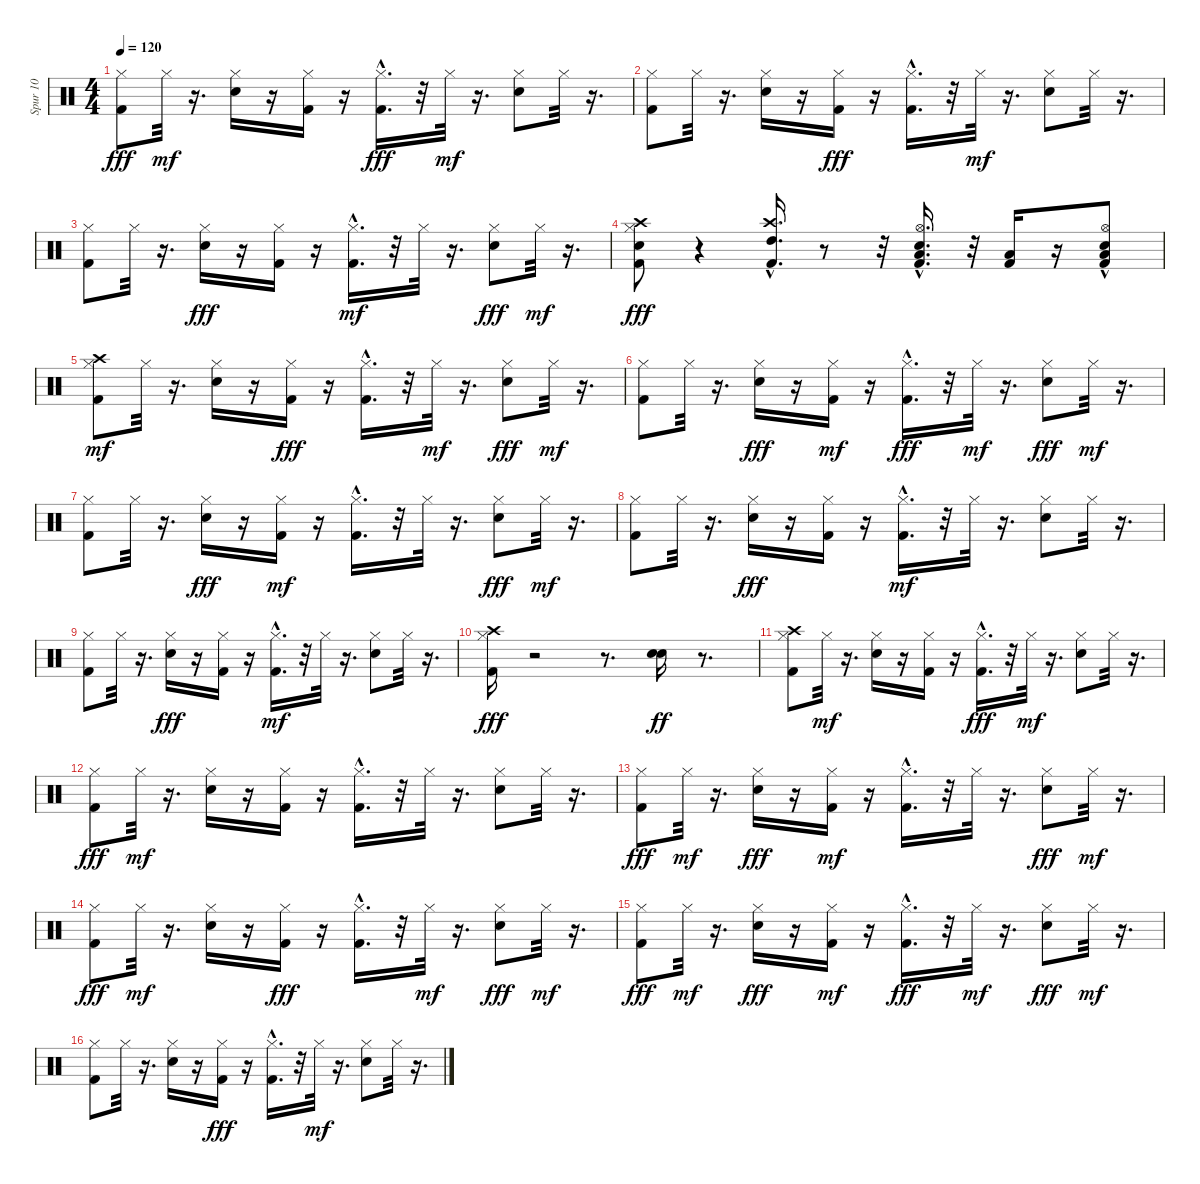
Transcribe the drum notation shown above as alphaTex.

\track ("Spur 10" "Spur 10") {instrument percussion}
\staff {score}
\articulation defaults
\ts (4 4)
\tempo 120
\clef neutral
\ks c
("Hi-Hat (closed)" "Kick (hit) 2").8{dy fff} "Hi-Hat (closed)".32{dy mf} r.16{d} ("Electric Snare (hit)" "Hi-Hat (closed)").16 r.16 ("Kick (hit) 2" "Hi-Hat (closed)").16 r.16 ("Hi-Hat (closed)" "Kick (hit) 2"{hac}).16{d dy fff} r.32 "Hi-Hat (closed)".32{dy mf} r.16{d} ("Electric Snare (hit)" "Hi-Hat (closed)").8 "Hi-Hat (closed)".32 r.16{d} |
("Kick (hit) 2" "Hi-Hat (closed)").8 "Hi-Hat (closed)".32 r.16{d} ("Electric Snare (hit)" "Hi-Hat (closed)").16 r.16 ("Hi-Hat (closed)" "Kick (hit) 2").16{dy fff} r.16 ("Hi-Hat (closed)" "Kick (hit) 2"{hac}).16{d} r.32 "Hi-Hat (closed)".32{dy mf} r.16{d} ("Electric Snare (hit)" "Hi-Hat (closed)").8 "Hi-Hat (closed)".32 r.16{d} |
("Kick (hit) 2" "Hi-Hat (closed)").8 "Hi-Hat (closed)".32 r.16{d} ("Hi-Hat (closed)" "Electric Snare (hit)").16{dy fff} r.16 ("Hi-Hat (closed)" "Kick (hit) 2").16 r.16 ("Kick (hit) 2"{hac} "Hi-Hat (closed)").16{d dy mf} r.32 "Hi-Hat (closed)".32 r.16{d} ("Hi-Hat (closed)" "Electric Snare (hit)").8{dy fff} "Hi-Hat (closed)".32{dy mf} r.16{d} |
("Hi-Hat (closed)" "Electric Snare (hit)" "Crash high (hit)" "Kick (hit) 2").8{dy fff} r.4 ("High Tom (hit)" "Crash high (hit)" "Kick (hit) 2"{hac}).16{d} r.8 r.32 ("Kick (hit) 2" "Low Tom (hit)" "Hi-Hat (open)" "Snare (hit) 2"{hac}).16{d} r.32 ("Kick (hit) 2" "Low Tom (hit)").16 r.16 ("Low Floor Tom (hit)"{hac} "Kick (hit) 2" "Hi-Hat (open)" "Snare (hit) 2").8 |
("Crash high (hit)" "Kick (hit) 2" "Hi-Hat (closed)").8{dy mf} "Hi-Hat (closed)".32 r.16{d} ("Electric Snare (hit)" "Hi-Hat (closed)").16 r.16 ("Hi-Hat (closed)" "Kick (hit) 2").16{dy fff} r.16 ("Hi-Hat (closed)" "Kick (hit) 2"{hac}).16{d} r.32 "Hi-Hat (closed)".32{dy mf} r.16{d} ("Hi-Hat (closed)" "Electric Snare (hit)").8{dy fff} "Hi-Hat (closed)".32{dy mf} r.16{d} |
("Kick (hit) 2" "Hi-Hat (closed)").8 "Hi-Hat (closed)".32 r.16{d} ("Hi-Hat (closed)" "Electric Snare (hit)").16{dy fff} r.16 ("Kick (hit) 2" "Hi-Hat (closed)").16{dy mf} r.16 ("Hi-Hat (closed)" "Kick (hit) 2"{hac}).16{d dy fff} r.32 "Hi-Hat (closed)".32{dy mf} r.16{d} ("Hi-Hat (closed)" "Electric Snare (hit)").8{dy fff} "Hi-Hat (closed)".32{dy mf} r.16{d} |
("Kick (hit) 2" "Hi-Hat (closed)").8 "Hi-Hat (closed)".32 r.16{d} ("Hi-Hat (closed)" "Electric Snare (hit)").16{dy fff} r.16 ("Kick (hit) 2" "Hi-Hat (closed)").16{dy mf} r.16 ("Kick (hit) 2"{hac} "Hi-Hat (closed)").16{d} r.32 "Hi-Hat (closed)".32 r.16{d} ("Hi-Hat (closed)" "Electric Snare (hit)").8{dy fff} "Hi-Hat (closed)".32{dy mf} r.16{d} |
("Kick (hit) 2" "Hi-Hat (closed)").8 "Hi-Hat (closed)".32 r.16{d} ("Hi-Hat (closed)" "Electric Snare (hit)").16{dy fff} r.16 ("Hi-Hat (closed)" "Kick (hit) 2").16 r.16 ("Kick (hit) 2"{hac} "Hi-Hat (closed)").16{d dy mf} r.32 "Hi-Hat (closed)".32 r.16{d} ("Electric Snare (hit)" "Hi-Hat (closed)").8 "Hi-Hat (closed)".32 r.16{d} |
("Kick (hit) 2" "Hi-Hat (closed)").8 "Hi-Hat (closed)".32 r.16{d} ("Hi-Hat (closed)" "Electric Snare (hit)").16{dy fff} r.16 ("Hi-Hat (closed)" "Kick (hit) 2").16 r.16 ("Kick (hit) 2"{hac} "Hi-Hat (closed)").16{d dy mf} r.32 "Hi-Hat (closed)".32 r.16{d} ("Electric Snare (hit)" "Hi-Hat (closed)").8 "Hi-Hat (closed)".32 r.16{d} |
("Hi-Hat (closed)" "Crash high (hit)" "Kick (hit) 2").16{dy fff} r.2 r.8{d} ("Electric Snare (hit)" "Electric Snare (hit)").16{dy ff} r.8{d} |
("Hi-Hat (closed)" "Kick (hit) 2" "Crash high (hit)").8 "Hi-Hat (closed)".32{dy mf} r.16{d} ("Electric Snare (hit)" "Hi-Hat (closed)").16 r.16 ("Kick (hit) 2" "Hi-Hat (closed)").16 r.16 ("Hi-Hat (closed)" "Kick (hit) 2"{hac}).16{d dy fff} r.32 "Hi-Hat (closed)".32{dy mf} r.16{d} ("Electric Snare (hit)" "Hi-Hat (closed)").8 "Hi-Hat (closed)".32 r.16{d} |
("Hi-Hat (closed)" "Kick (hit) 2").8{dy fff} "Hi-Hat (closed)".32{dy mf} r.16{d} ("Electric Snare (hit)" "Hi-Hat (closed)").16 r.16 ("Kick (hit) 2" "Hi-Hat (closed)").16 r.16 ("Kick (hit) 2"{hac} "Hi-Hat (closed)").16{d} r.32 "Hi-Hat (closed)".32 r.16{d} ("Electric Snare (hit)" "Hi-Hat (closed)").8 "Hi-Hat (closed)".32 r.16{d} |
("Hi-Hat (closed)" "Kick (hit) 2").8{dy fff} "Hi-Hat (closed)".32{dy mf} r.16{d} ("Hi-Hat (closed)" "Electric Snare (hit)").16{dy fff} r.16 ("Kick (hit) 2" "Hi-Hat (closed)").16{dy mf} r.16 ("Kick (hit) 2"{hac} "Hi-Hat (closed)").16{d} r.32 "Hi-Hat (closed)".32 r.16{d} ("Hi-Hat (closed)" "Electric Snare (hit)").8{dy fff} "Hi-Hat (closed)".32{dy mf} r.16{d} |
("Hi-Hat (closed)" "Kick (hit) 2").8{dy fff} "Hi-Hat (closed)".32{dy mf} r.16{d} ("Electric Snare (hit)" "Hi-Hat (closed)").16 r.16 ("Hi-Hat (closed)" "Kick (hit) 2").16{dy fff} r.16 ("Hi-Hat (closed)" "Kick (hit) 2"{hac}).16{d} r.32 "Hi-Hat (closed)".32{dy mf} r.16{d} ("Hi-Hat (closed)" "Electric Snare (hit)").8{dy fff} "Hi-Hat (closed)".32{dy mf} r.16{d} |
("Hi-Hat (closed)" "Kick (hit) 2").8{dy fff} "Hi-Hat (closed)".32{dy mf} r.16{d} ("Hi-Hat (closed)" "Electric Snare (hit)").16{dy fff} r.16 ("Kick (hit) 2" "Hi-Hat (closed)").16{dy mf} r.16 ("Hi-Hat (closed)" "Kick (hit) 2"{hac}).16{d dy fff} r.32 "Hi-Hat (closed)".32{dy mf} r.16{d} ("Hi-Hat (closed)" "Electric Snare (hit)").8{dy fff} "Hi-Hat (closed)".32{dy mf} r.16{d} |
("Kick (hit) 2" "Hi-Hat (closed)").8 "Hi-Hat (closed)".32 r.16{d} ("Electric Snare (hit)" "Hi-Hat (closed)").16 r.16 ("Hi-Hat (closed)" "Kick (hit) 2").16{dy fff} r.16 ("Hi-Hat (closed)" "Kick (hit) 2"{hac}).16{d} r.32 "Hi-Hat (closed)".32{dy mf} r.16{d} ("Electric Snare (hit)" "Hi-Hat (closed)").8 "Hi-Hat (closed)".32 r.16{d}
